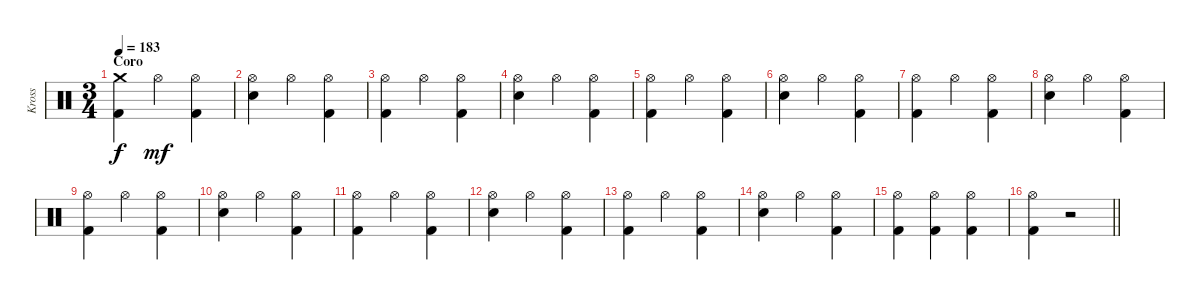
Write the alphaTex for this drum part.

\track ("Kross" "Kross") {instrument percussion}
\staff {score}
\articulation defaults
\ts (3 4)
\section ("" "Coro")
\tempo 183
\clef neutral
\ks c
("Crash medium (hit)" "Kick (hit) 2").4{dy f} "Hi-Hat (open)".4{dy mf} ("Hi-Hat (open)" "Kick (hit) 2").4 |
("Hi-Hat (open)" "Electric Snare (hit)").4 "Hi-Hat (open)".4 ("Hi-Hat (open)" "Kick (hit) 2").4 |
("Hi-Hat (open)" "Kick (hit) 2").4 "Hi-Hat (open)".4 ("Hi-Hat (open)" "Kick (hit) 2").4 |
("Hi-Hat (open)" "Electric Snare (hit)").4 "Hi-Hat (open)".4 ("Hi-Hat (open)" "Kick (hit) 2").4 |
("Hi-Hat (open)" "Kick (hit) 2").4 "Hi-Hat (open)".4 ("Hi-Hat (open)" "Kick (hit) 2").4 |
("Hi-Hat (open)" "Electric Snare (hit)").4 "Hi-Hat (open)".4 ("Hi-Hat (open)" "Kick (hit) 2").4 |
("Hi-Hat (open)" "Kick (hit) 2").4 "Hi-Hat (open)".4 ("Hi-Hat (open)" "Kick (hit) 2").4 |
("Hi-Hat (open)" "Electric Snare (hit)").4 "Hi-Hat (open)".4 ("Hi-Hat (open)" "Kick (hit) 2").4 |
("Hi-Hat (open)" "Kick (hit) 2").4 "Hi-Hat (open)".4 ("Hi-Hat (open)" "Kick (hit) 2").4 |
("Hi-Hat (open)" "Electric Snare (hit)").4 "Hi-Hat (open)".4 ("Hi-Hat (open)" "Kick (hit) 2").4 |
("Hi-Hat (open)" "Kick (hit) 2").4 "Hi-Hat (open)".4 ("Hi-Hat (open)" "Kick (hit) 2").4 |
("Hi-Hat (open)" "Electric Snare (hit)").4 "Hi-Hat (open)".4 ("Hi-Hat (open)" "Kick (hit) 2").4 |
("Hi-Hat (open)" "Kick (hit) 2").4 "Hi-Hat (open)".4 ("Hi-Hat (open)" "Kick (hit) 2").4 |
("Hi-Hat (open)" "Electric Snare (hit)").4 "Hi-Hat (open)".4 ("Hi-Hat (open)" "Kick (hit) 2").4 |
("Hi-Hat (open)" "Kick (hit) 2").4 ("Hi-Hat (open)" "Kick (hit) 2").4 ("Hi-Hat (open)" "Kick (hit) 2").4 |
\barLineRight lightlight
("Hi-Hat (open)" "Kick (hit) 2").4 r.2
